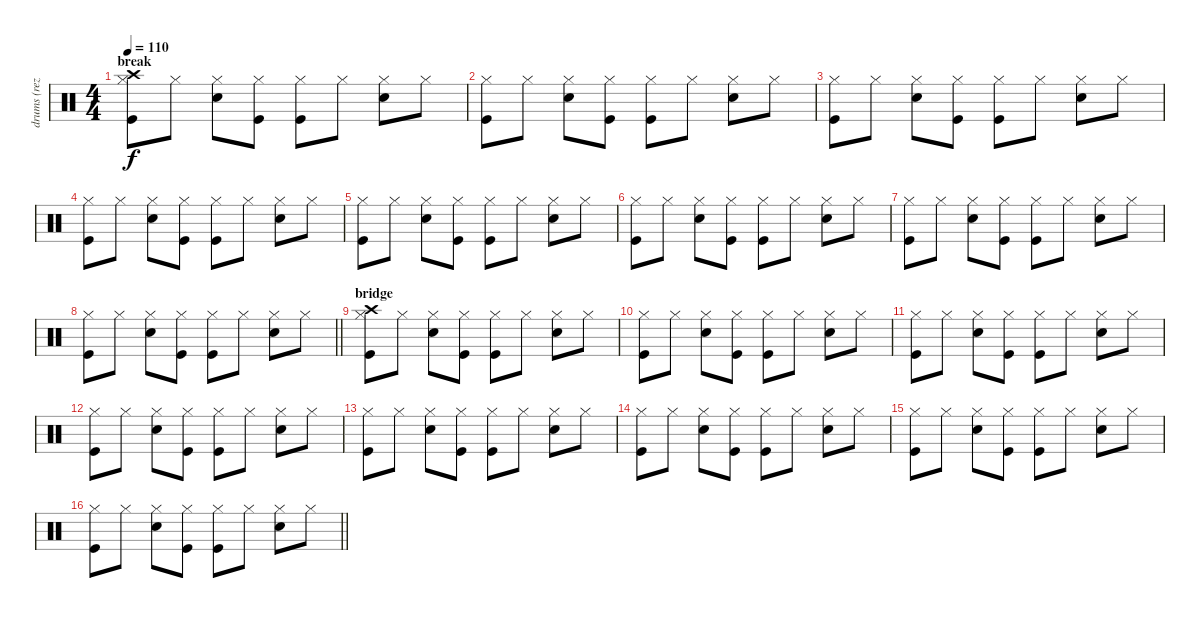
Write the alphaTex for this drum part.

\track ("drums (reza)" "drums (rez") {instrument percussion}
\staff {score}
\articulation defaults
\ts (4 4)
\section ("" "break")
\tempo 110
\clef neutral
\ks c
("Hi-Hat (closed)" "Kick (hit)" "Crash high (hit)").8{dy f} "Hi-Hat (closed)".8 ("Hi-Hat (closed)" "Snare (hit) 2").8 ("Hi-Hat (closed)" "Kick (hit)").8 ("Hi-Hat (closed)" "Kick (hit)").8 "Hi-Hat (closed)".8 ("Hi-Hat (closed)" "Snare (hit) 2").8 "Hi-Hat (closed)".8 |
("Hi-Hat (closed)" "Kick (hit)").8 "Hi-Hat (closed)".8 ("Hi-Hat (closed)" "Snare (hit) 2").8 ("Hi-Hat (closed)" "Kick (hit)").8 ("Hi-Hat (closed)" "Kick (hit)").8 "Hi-Hat (closed)".8 ("Hi-Hat (closed)" "Snare (hit) 2").8 "Hi-Hat (closed)".8 |
("Hi-Hat (closed)" "Kick (hit)").8 "Hi-Hat (closed)".8 ("Hi-Hat (closed)" "Snare (hit) 2").8 ("Hi-Hat (closed)" "Kick (hit)").8 ("Hi-Hat (closed)" "Kick (hit)").8 "Hi-Hat (closed)".8 ("Hi-Hat (closed)" "Snare (hit) 2").8 "Hi-Hat (closed)".8 |
("Hi-Hat (closed)" "Kick (hit)").8 "Hi-Hat (closed)".8 ("Hi-Hat (closed)" "Snare (hit) 2").8 ("Hi-Hat (closed)" "Kick (hit)").8 ("Hi-Hat (closed)" "Kick (hit)").8 "Hi-Hat (closed)".8 ("Hi-Hat (closed)" "Snare (hit) 2").8 "Hi-Hat (closed)".8 |
("Hi-Hat (closed)" "Kick (hit)").8 "Hi-Hat (closed)".8 ("Hi-Hat (closed)" "Snare (hit) 2").8 ("Hi-Hat (closed)" "Kick (hit)").8 ("Hi-Hat (closed)" "Kick (hit)").8 "Hi-Hat (closed)".8 ("Hi-Hat (closed)" "Snare (hit) 2").8 "Hi-Hat (closed)".8 |
("Hi-Hat (closed)" "Kick (hit)").8 "Hi-Hat (closed)".8 ("Hi-Hat (closed)" "Snare (hit) 2").8 ("Hi-Hat (closed)" "Kick (hit)").8 ("Hi-Hat (closed)" "Kick (hit)").8 "Hi-Hat (closed)".8 ("Hi-Hat (closed)" "Snare (hit) 2").8 "Hi-Hat (closed)".8 |
("Hi-Hat (closed)" "Kick (hit)").8 "Hi-Hat (closed)".8 ("Hi-Hat (closed)" "Snare (hit) 2").8 ("Hi-Hat (closed)" "Kick (hit)").8 ("Hi-Hat (closed)" "Kick (hit)").8 "Hi-Hat (closed)".8 ("Hi-Hat (closed)" "Snare (hit) 2").8 "Hi-Hat (closed)".8 |
\barLineRight lightlight
("Hi-Hat (closed)" "Kick (hit)").8 "Hi-Hat (closed)".8 ("Hi-Hat (closed)" "Snare (hit) 2").8 ("Hi-Hat (closed)" "Kick (hit)").8 ("Hi-Hat (closed)" "Kick (hit)").8 "Hi-Hat (closed)".8 ("Hi-Hat (closed)" "Snare (hit) 2").8 "Hi-Hat (closed)".8 |
\section ("" "bridge")
("Hi-Hat (closed)" "Kick (hit)" "Crash high (hit)").8 "Hi-Hat (closed)".8 ("Hi-Hat (closed)" "Snare (hit) 2").8 ("Hi-Hat (closed)" "Kick (hit)").8 ("Hi-Hat (closed)" "Kick (hit)").8 "Hi-Hat (closed)".8 ("Hi-Hat (closed)" "Snare (hit) 2").8 "Hi-Hat (closed)".8 |
("Hi-Hat (closed)" "Kick (hit)").8 "Hi-Hat (closed)".8 ("Hi-Hat (closed)" "Snare (hit) 2").8 ("Hi-Hat (closed)" "Kick (hit)").8 ("Hi-Hat (closed)" "Kick (hit)").8 "Hi-Hat (closed)".8 ("Hi-Hat (closed)" "Snare (hit) 2").8 "Hi-Hat (closed)".8 |
("Hi-Hat (closed)" "Kick (hit)").8 "Hi-Hat (closed)".8 ("Hi-Hat (closed)" "Snare (hit) 2").8 ("Hi-Hat (closed)" "Kick (hit)").8 ("Hi-Hat (closed)" "Kick (hit)").8 "Hi-Hat (closed)".8 ("Hi-Hat (closed)" "Snare (hit) 2").8 "Hi-Hat (closed)".8 |
("Hi-Hat (closed)" "Kick (hit)").8 "Hi-Hat (closed)".8 ("Hi-Hat (closed)" "Snare (hit) 2").8 ("Hi-Hat (closed)" "Kick (hit)").8 ("Hi-Hat (closed)" "Kick (hit)").8 "Hi-Hat (closed)".8 ("Hi-Hat (closed)" "Snare (hit) 2").8 "Hi-Hat (closed)".8 |
("Hi-Hat (closed)" "Kick (hit)").8 "Hi-Hat (closed)".8 ("Hi-Hat (closed)" "Snare (hit) 2").8 ("Hi-Hat (closed)" "Kick (hit)").8 ("Hi-Hat (closed)" "Kick (hit)").8 "Hi-Hat (closed)".8 ("Hi-Hat (closed)" "Snare (hit) 2").8 "Hi-Hat (closed)".8 |
("Hi-Hat (closed)" "Kick (hit)").8 "Hi-Hat (closed)".8 ("Hi-Hat (closed)" "Snare (hit) 2").8 ("Hi-Hat (closed)" "Kick (hit)").8 ("Hi-Hat (closed)" "Kick (hit)").8 "Hi-Hat (closed)".8 ("Hi-Hat (closed)" "Snare (hit) 2").8 "Hi-Hat (closed)".8 |
("Hi-Hat (closed)" "Kick (hit)").8 "Hi-Hat (closed)".8 ("Hi-Hat (closed)" "Snare (hit) 2").8 ("Hi-Hat (closed)" "Kick (hit)").8 ("Hi-Hat (closed)" "Kick (hit)").8 "Hi-Hat (closed)".8 ("Hi-Hat (closed)" "Snare (hit) 2").8 "Hi-Hat (closed)".8 |
\barLineRight lightlight
("Hi-Hat (closed)" "Kick (hit)").8 "Hi-Hat (closed)".8 ("Hi-Hat (closed)" "Snare (hit) 2").8 ("Hi-Hat (closed)" "Kick (hit)").8 ("Hi-Hat (closed)" "Kick (hit)").8 "Hi-Hat (closed)".8 ("Hi-Hat (closed)" "Snare (hit) 2").8 "Hi-Hat (closed)".8
